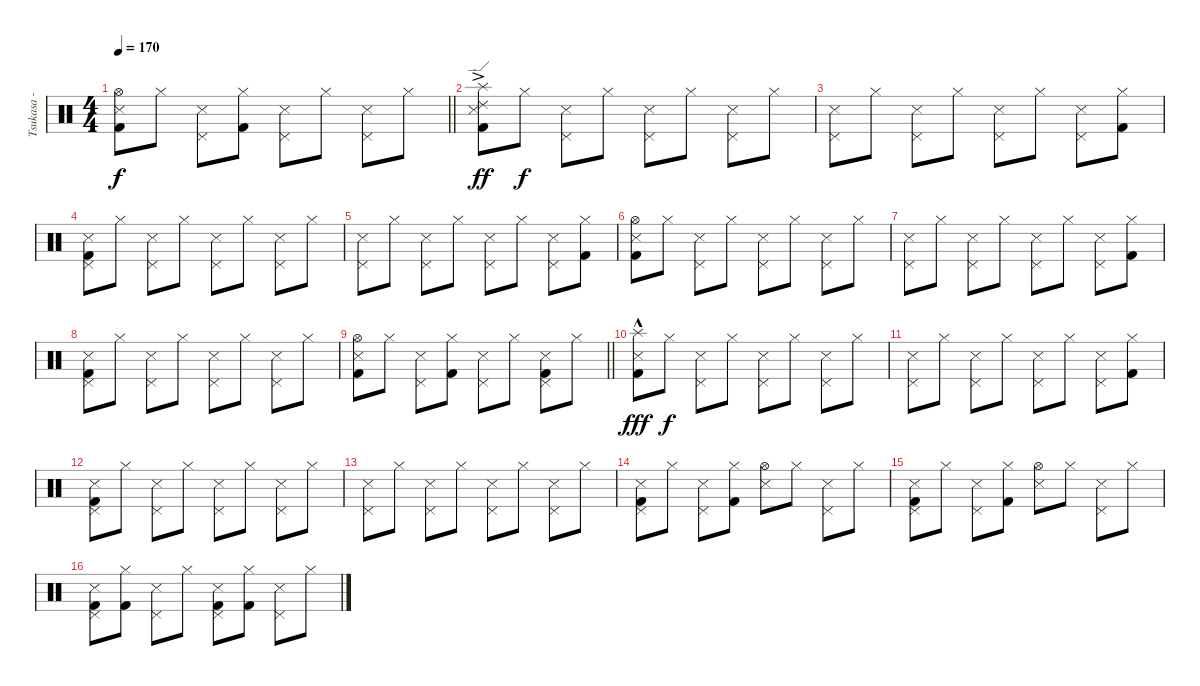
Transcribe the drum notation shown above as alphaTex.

\track ("Tsukasa - Drums" "Tsukasa - ") {instrument percussion}
\staff {score}
\articulation defaults
\ts (4 4)
\tempo 170
\clef neutral
\barLineRight lightlight
\ks c
("Hi-Hat (open)" "Metronome (hit)" "Kick (hit) 2").8{dy f} "Hi-Hat (closed)".8 ("Pedal Hi-Hat (hit)" "Metronome (hit)").8 ("Hi-Hat (closed)" "Kick (hit) 2").8 ("Pedal Hi-Hat (hit)" "Metronome (hit)").8 "Hi-Hat (closed)".8 ("Pedal Hi-Hat (hit)" "Metronome (hit)").8 "Hi-Hat (closed)".8 |
\section ("" "")
("Splash (hit)"{ac} "Ride (edge) 2"{ac} "Metronome (hit)" "Kick (hit) 2").8{dy ff} "Hi-Hat (closed)".8{dy f} ("Pedal Hi-Hat (hit)" "Metronome (hit)").8 "Hi-Hat (closed)".8 ("Pedal Hi-Hat (hit)" "Metronome (hit)").8 "Hi-Hat (closed)".8 ("Pedal Hi-Hat (hit)" "Metronome (hit)").8 "Hi-Hat (closed)".8 |
("Pedal Hi-Hat (hit)" "Metronome (hit)").8 "Hi-Hat (closed)".8 ("Pedal Hi-Hat (hit)" "Metronome (hit)").8 "Hi-Hat (closed)".8 ("Pedal Hi-Hat (hit)" "Metronome (hit)").8 "Hi-Hat (closed)".8 ("Pedal Hi-Hat (hit)" "Metronome (hit)").8 ("Hi-Hat (closed)" "Kick (hit) 2").8 |
("Pedal Hi-Hat (hit)" "Metronome (hit)" "Kick (hit) 2").8 "Hi-Hat (closed)".8 ("Pedal Hi-Hat (hit)" "Metronome (hit)").8 "Hi-Hat (closed)".8 ("Pedal Hi-Hat (hit)" "Metronome (hit)").8 "Hi-Hat (closed)".8 ("Pedal Hi-Hat (hit)" "Metronome (hit)").8 "Hi-Hat (closed)".8 |
("Pedal Hi-Hat (hit)" "Metronome (hit)").8 "Hi-Hat (closed)".8 ("Pedal Hi-Hat (hit)" "Metronome (hit)").8 "Hi-Hat (closed)".8 ("Pedal Hi-Hat (hit)" "Metronome (hit)").8 "Hi-Hat (closed)".8 ("Pedal Hi-Hat (hit)" "Metronome (hit)").8 ("Hi-Hat (closed)" "Kick (hit) 2").8 |
("Hi-Hat (open)" "Metronome (hit)" "Kick (hit) 2").8 "Hi-Hat (closed)".8 ("Pedal Hi-Hat (hit)" "Metronome (hit)").8 "Hi-Hat (closed)".8 ("Pedal Hi-Hat (hit)" "Metronome (hit)").8 "Hi-Hat (closed)".8 ("Pedal Hi-Hat (hit)" "Metronome (hit)").8 "Hi-Hat (closed)".8 |
("Pedal Hi-Hat (hit)" "Metronome (hit)").8 "Hi-Hat (closed)".8 ("Pedal Hi-Hat (hit)" "Metronome (hit)").8 "Hi-Hat (closed)".8 ("Pedal Hi-Hat (hit)" "Metronome (hit)").8 "Hi-Hat (closed)".8 ("Pedal Hi-Hat (hit)" "Metronome (hit)").8 ("Hi-Hat (closed)" "Kick (hit) 2").8 |
("Pedal Hi-Hat (hit)" "Metronome (hit)" "Kick (hit) 2").8 "Hi-Hat (closed)".8 ("Pedal Hi-Hat (hit)" "Metronome (hit)").8 "Hi-Hat (closed)".8 ("Pedal Hi-Hat (hit)" "Metronome (hit)").8 "Hi-Hat (closed)".8 ("Pedal Hi-Hat (hit)" "Metronome (hit)").8 "Hi-Hat (closed)".8 |
\barLineRight lightlight
("Hi-Hat (open)" "Metronome (hit)" "Kick (hit) 2").8 "Hi-Hat (closed)".8 ("Pedal Hi-Hat (hit)" "Metronome (hit)").8 ("Hi-Hat (closed)" "Kick (hit) 2").8 ("Pedal Hi-Hat (hit)" "Metronome (hit)").8 "Hi-Hat (closed)".8 ("Pedal Hi-Hat (hit)" "Metronome (hit)" "Kick (hit) 2").8 "Hi-Hat (closed)".8 |
\section ("" "")
("Splash (hit)"{hac} "Metronome (hit)" "Kick (hit) 2").8{dy fff} "Hi-Hat (closed)".8{dy f} ("Pedal Hi-Hat (hit)" "Metronome (hit)").8 "Hi-Hat (closed)".8 ("Pedal Hi-Hat (hit)" "Metronome (hit)").8 "Hi-Hat (closed)".8 ("Pedal Hi-Hat (hit)" "Metronome (hit)").8 "Hi-Hat (closed)".8 |
("Pedal Hi-Hat (hit)" "Metronome (hit)").8 "Hi-Hat (closed)".8 ("Pedal Hi-Hat (hit)" "Metronome (hit)").8 "Hi-Hat (closed)".8 ("Pedal Hi-Hat (hit)" "Metronome (hit)").8 "Hi-Hat (closed)".8 ("Pedal Hi-Hat (hit)" "Metronome (hit)").8 ("Hi-Hat (closed)" "Kick (hit) 2").8 |
("Pedal Hi-Hat (hit)" "Metronome (hit)" "Kick (hit) 2").8 "Hi-Hat (closed)".8 ("Pedal Hi-Hat (hit)" "Metronome (hit)").8 "Hi-Hat (closed)".8 ("Pedal Hi-Hat (hit)" "Metronome (hit)").8 "Hi-Hat (closed)".8 ("Pedal Hi-Hat (hit)" "Metronome (hit)").8 "Hi-Hat (closed)".8 |
("Pedal Hi-Hat (hit)" "Metronome (hit)").8 "Hi-Hat (closed)".8 ("Pedal Hi-Hat (hit)" "Metronome (hit)").8 "Hi-Hat (closed)".8 ("Pedal Hi-Hat (hit)" "Metronome (hit)").8 "Hi-Hat (closed)".8 ("Pedal Hi-Hat (hit)" "Metronome (hit)").8 "Hi-Hat (closed)".8 |
("Pedal Hi-Hat (hit)" "Metronome (hit)" "Kick (hit) 2").8 "Hi-Hat (closed)".8 ("Pedal Hi-Hat (hit)" "Metronome (hit)").8 ("Hi-Hat (closed)" "Kick (hit) 2").8 ("Hi-Hat (open)" "Metronome (hit)").8 "Hi-Hat (closed)".8 ("Pedal Hi-Hat (hit)" "Metronome (hit)").8 "Hi-Hat (closed)".8 |
("Pedal Hi-Hat (hit)" "Metronome (hit)" "Kick (hit) 2").8 "Hi-Hat (closed)".8 ("Pedal Hi-Hat (hit)" "Metronome (hit)").8 ("Hi-Hat (closed)" "Kick (hit) 2").8 ("Hi-Hat (open)" "Metronome (hit)").8 "Hi-Hat (closed)".8 ("Pedal Hi-Hat (hit)" "Metronome (hit)").8 "Hi-Hat (closed)".8 |
("Pedal Hi-Hat (hit)" "Metronome (hit)" "Kick (hit) 2").8 ("Hi-Hat (closed)" "Kick (hit) 2").8 ("Pedal Hi-Hat (hit)" "Metronome (hit)").8 "Hi-Hat (closed)".8 ("Pedal Hi-Hat (hit)" "Metronome (hit)" "Kick (hit) 2").8 ("Hi-Hat (closed)" "Kick (hit) 2").8 ("Pedal Hi-Hat (hit)" "Metronome (hit)").8 "Hi-Hat (closed)".8
